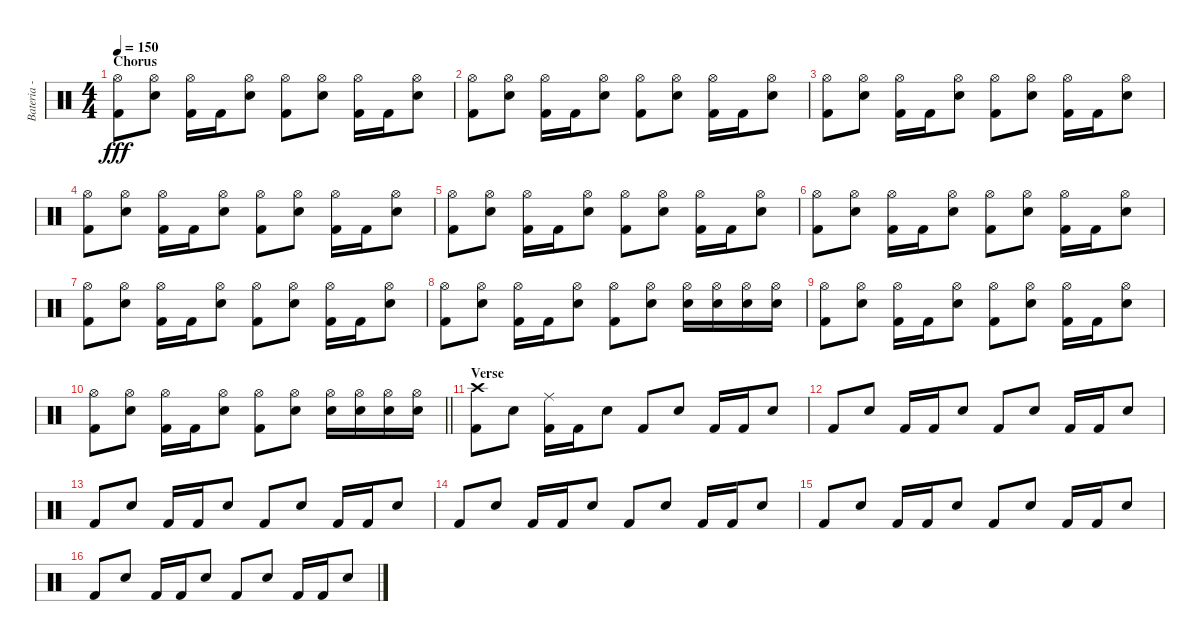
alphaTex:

\track ("Bateria - Larzon" "Bateria - ") {instrument percussion}
\staff {score}
\articulation defaults
\ts (4 4)
\section ("" "Chorus")
\tempo 150
\clef neutral
\ks c
("Kick (hit) 2" "Hi-Hat (open)").8{dy fff} ("Hi-Hat (open)" "Snare (hit) 2").8 ("Kick (hit) 2" "Hi-Hat (open)").16 "Kick (hit) 2".16 ("Hi-Hat (open)" "Snare (hit) 2").8 ("Kick (hit) 2" "Hi-Hat (open)").8 ("Hi-Hat (open)" "Snare (hit) 2").8 ("Kick (hit) 2" "Hi-Hat (open)").16 "Kick (hit) 2".16 ("Hi-Hat (open)" "Snare (hit) 2").8 |
("Kick (hit) 2" "Hi-Hat (open)").8 ("Hi-Hat (open)" "Snare (hit) 2").8 ("Kick (hit) 2" "Hi-Hat (open)").16 "Kick (hit) 2".16 ("Hi-Hat (open)" "Snare (hit) 2").8 ("Kick (hit) 2" "Hi-Hat (open)").8 ("Hi-Hat (open)" "Snare (hit) 2").8 ("Kick (hit) 2" "Hi-Hat (open)").16 "Kick (hit) 2".16 ("Hi-Hat (open)" "Snare (hit) 2").8 |
("Kick (hit) 2" "Hi-Hat (open)").8 ("Hi-Hat (open)" "Snare (hit) 2").8 ("Kick (hit) 2" "Hi-Hat (open)").16 "Kick (hit) 2".16 ("Hi-Hat (open)" "Snare (hit) 2").8 ("Kick (hit) 2" "Hi-Hat (open)").8 ("Hi-Hat (open)" "Snare (hit) 2").8 ("Kick (hit) 2" "Hi-Hat (open)").16 "Kick (hit) 2".16 ("Hi-Hat (open)" "Snare (hit) 2").8 |
("Kick (hit) 2" "Hi-Hat (open)").8 ("Hi-Hat (open)" "Snare (hit) 2").8 ("Kick (hit) 2" "Hi-Hat (open)").16 "Kick (hit) 2".16 ("Hi-Hat (open)" "Snare (hit) 2").8 ("Kick (hit) 2" "Hi-Hat (open)").8 ("Hi-Hat (open)" "Snare (hit) 2").8 ("Kick (hit) 2" "Hi-Hat (open)").16 "Kick (hit) 2".16 ("Hi-Hat (open)" "Snare (hit) 2").8 |
("Kick (hit) 2" "Hi-Hat (open)").8 ("Hi-Hat (open)" "Snare (hit) 2").8 ("Kick (hit) 2" "Hi-Hat (open)").16 "Kick (hit) 2".16 ("Hi-Hat (open)" "Snare (hit) 2").8 ("Kick (hit) 2" "Hi-Hat (open)").8 ("Hi-Hat (open)" "Snare (hit) 2").8 ("Kick (hit) 2" "Hi-Hat (open)").16 "Kick (hit) 2".16 ("Hi-Hat (open)" "Snare (hit) 2").8 |
("Kick (hit) 2" "Hi-Hat (open)").8 ("Hi-Hat (open)" "Snare (hit) 2").8 ("Kick (hit) 2" "Hi-Hat (open)").16 "Kick (hit) 2".16 ("Hi-Hat (open)" "Snare (hit) 2").8 ("Kick (hit) 2" "Hi-Hat (open)").8 ("Hi-Hat (open)" "Snare (hit) 2").8 ("Kick (hit) 2" "Hi-Hat (open)").16 "Kick (hit) 2".16 ("Hi-Hat (open)" "Snare (hit) 2").8 |
("Kick (hit) 2" "Hi-Hat (open)").8 ("Hi-Hat (open)" "Snare (hit) 2").8 ("Kick (hit) 2" "Hi-Hat (open)").16 "Kick (hit) 2".16 ("Hi-Hat (open)" "Snare (hit) 2").8 ("Kick (hit) 2" "Hi-Hat (open)").8 ("Hi-Hat (open)" "Snare (hit) 2").8 ("Kick (hit) 2" "Hi-Hat (open)").16 "Kick (hit) 2".16 ("Hi-Hat (open)" "Snare (hit) 2").8 |
("Kick (hit) 2" "Hi-Hat (open)").8 ("Hi-Hat (open)" "Snare (hit) 2").8 ("Kick (hit) 2" "Hi-Hat (open)").16 "Kick (hit) 2".16 ("Hi-Hat (open)" "Snare (hit) 2").8 ("Kick (hit) 2" "Hi-Hat (open)").8 ("Hi-Hat (open)" "Snare (hit) 2").8 ("Hi-Hat (open)" "Snare (hit) 2").16 ("Hi-Hat (open)" "Snare (hit) 2").16 ("Hi-Hat (open)" "Snare (hit) 2").16 ("Hi-Hat (open)" "Snare (hit) 2").16 |
("Kick (hit) 2" "Hi-Hat (open)").8 ("Hi-Hat (open)" "Snare (hit) 2").8 ("Kick (hit) 2" "Hi-Hat (open)").16 "Kick (hit) 2".16 ("Hi-Hat (open)" "Snare (hit) 2").8 ("Kick (hit) 2" "Hi-Hat (open)").8 ("Hi-Hat (open)" "Snare (hit) 2").8 ("Kick (hit) 2" "Hi-Hat (open)").16 "Kick (hit) 2".16 ("Hi-Hat (open)" "Snare (hit) 2").8 |
\barLineRight lightlight
("Kick (hit) 2" "Hi-Hat (open)").8 ("Hi-Hat (open)" "Snare (hit) 2").8 ("Kick (hit) 2" "Hi-Hat (open)").16 "Kick (hit) 2".16 ("Hi-Hat (open)" "Snare (hit) 2").8 ("Kick (hit) 2" "Hi-Hat (open)").8 ("Hi-Hat (open)" "Snare (hit) 2").8 ("Hi-Hat (open)" "Snare (hit) 2").16 ("Hi-Hat (open)" "Snare (hit) 2").16 ("Hi-Hat (open)" "Snare (hit) 2").16 ("Hi-Hat (open)" "Snare (hit) 2").16 |
\section ("" "Verse")
("Kick (hit) 2" "Crash high (hit)").8 "Snare (hit) 2".8 ("Ride (middle)" "Kick (hit) 2").16 "Kick (hit) 2".16 "Snare (hit) 2".8 "Kick (hit) 2".8 "Snare (hit) 2".8 "Kick (hit) 2".16 "Kick (hit) 2".16 "Snare (hit) 2".8 |
"Kick (hit) 2".8 "Snare (hit) 2".8 "Kick (hit) 2".16 "Kick (hit) 2".16 "Snare (hit) 2".8 "Kick (hit) 2".8 "Snare (hit) 2".8 "Kick (hit) 2".16 "Kick (hit) 2".16 "Snare (hit) 2".8 |
"Kick (hit) 2".8 "Snare (hit) 2".8 "Kick (hit) 2".16 "Kick (hit) 2".16 "Snare (hit) 2".8 "Kick (hit) 2".8 "Snare (hit) 2".8 "Kick (hit) 2".16 "Kick (hit) 2".16 "Snare (hit) 2".8 |
"Kick (hit) 2".8 "Snare (hit) 2".8 "Kick (hit) 2".16 "Kick (hit) 2".16 "Snare (hit) 2".8 "Kick (hit) 2".8 "Snare (hit) 2".8 "Kick (hit) 2".16 "Kick (hit) 2".16 "Snare (hit) 2".8 |
"Kick (hit) 2".8 "Snare (hit) 2".8 "Kick (hit) 2".16 "Kick (hit) 2".16 "Snare (hit) 2".8 "Kick (hit) 2".8 "Snare (hit) 2".8 "Kick (hit) 2".16 "Kick (hit) 2".16 "Snare (hit) 2".8 |
"Kick (hit) 2".8 "Snare (hit) 2".8 "Kick (hit) 2".16 "Kick (hit) 2".16 "Snare (hit) 2".8 "Kick (hit) 2".8 "Snare (hit) 2".8 "Kick (hit) 2".16 "Kick (hit) 2".16 "Snare (hit) 2".8
